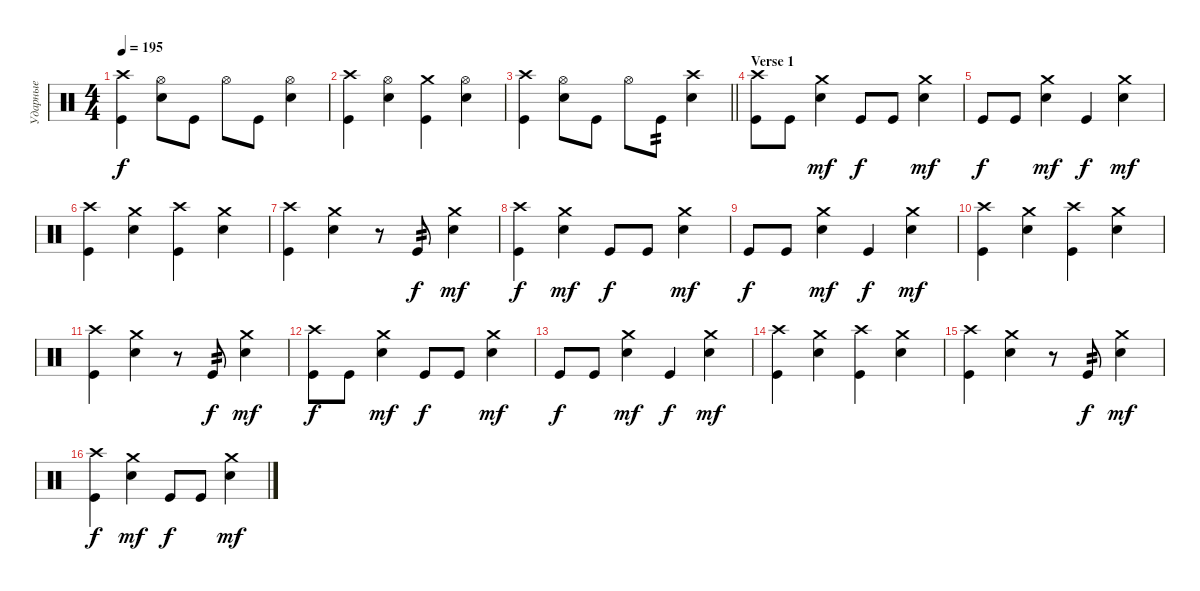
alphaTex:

\track ("Ударные" "Ударные") {instrument percussion}
\staff {score}
\articulation defaults
\ts (4 4)
\tempo 195
\clef neutral
\ks c
("Kick (hit)" "Crash high (hit)").4{dy f} ("Snare (hit) 2" "Hi-Hat (open)").8 "Kick (hit)".8 "Hi-Hat (open)".8 "Kick (hit)".8 ("Snare (hit) 2" "Hi-Hat (open)").4 |
("Kick (hit)" "Crash high (hit)").4 ("Snare (hit) 2" "Hi-Hat (open)").4 ("Kick (hit)" "Crash medium (hit)").4 ("Snare (hit) 2" "Hi-Hat (open)").4 |
\barLineRight lightlight
("Kick (hit)" "Crash high (hit)").4 ("Snare (hit) 2" "Hi-Hat (open)").8 "Kick (hit)".8 "Hi-Hat (open)".8 "Kick (hit)".8{tp 2} ("Snare (hit) 2" "Crash high (hit)").4 |
\section ("" "Verse 1")
("Kick (hit)" "Crash high (hit)").8 "Kick (hit)".8 ("Snare (hit) 2" "Crash medium (hit)").4{dy mf} "Kick (hit)".8{dy f} "Kick (hit)".8 ("Snare (hit) 2" "Crash medium (hit)").4{dy mf} |
"Kick (hit)".8{dy f} "Kick (hit)".8 ("Snare (hit) 2" "Crash medium (hit)").4{dy mf} "Kick (hit)".4{dy f} ("Snare (hit) 2" "Crash medium (hit)").4{dy mf} |
("Kick (hit)" "Crash high (hit)").4 ("Snare (hit) 2" "Crash medium (hit)").4 ("Kick (hit)" "Crash high (hit)").4 ("Snare (hit) 2" "Crash medium (hit)").4 |
("Kick (hit)" "Crash high (hit)").4 ("Snare (hit) 2" "Crash medium (hit)").4 r.8 "Kick (hit)".8{tp 2 dy f} ("Snare (hit) 2" "Crash medium (hit)").4{dy mf} |
("Kick (hit)" "Crash high (hit)").4{dy f} ("Snare (hit) 2" "Crash medium (hit)").4{dy mf} "Kick (hit)".8{dy f} "Kick (hit)".8 ("Snare (hit) 2" "Crash medium (hit)").4{dy mf} |
"Kick (hit)".8{dy f} "Kick (hit)".8 ("Snare (hit) 2" "Crash medium (hit)").4{dy mf} "Kick (hit)".4{dy f} ("Snare (hit) 2" "Crash medium (hit)").4{dy mf} |
("Kick (hit)" "Crash high (hit)").4 ("Snare (hit) 2" "Crash medium (hit)").4 ("Kick (hit)" "Crash high (hit)").4 ("Snare (hit) 2" "Crash medium (hit)").4 |
("Kick (hit)" "Crash high (hit)").4 ("Snare (hit) 2" "Crash medium (hit)").4 r.8 "Kick (hit)".8{tp 2 dy f} ("Snare (hit) 2" "Crash medium (hit)").4{dy mf} |
("Kick (hit)" "Crash high (hit)").8{dy f} "Kick (hit)".8 ("Snare (hit) 2" "Crash medium (hit)").4{dy mf} "Kick (hit)".8{dy f} "Kick (hit)".8 ("Snare (hit) 2" "Crash medium (hit)").4{dy mf} |
"Kick (hit)".8{dy f} "Kick (hit)".8 ("Snare (hit) 2" "Crash medium (hit)").4{dy mf} "Kick (hit)".4{dy f} ("Snare (hit) 2" "Crash medium (hit)").4{dy mf} |
("Kick (hit)" "Crash high (hit)").4 ("Snare (hit) 2" "Crash medium (hit)").4 ("Kick (hit)" "Crash high (hit)").4 ("Snare (hit) 2" "Crash medium (hit)").4 |
("Kick (hit)" "Crash high (hit)").4 ("Snare (hit) 2" "Crash medium (hit)").4 r.8 "Kick (hit)".8{tp 2 dy f} ("Snare (hit) 2" "Crash medium (hit)").4{dy mf} |
("Kick (hit)" "Crash high (hit)").4{dy f} ("Snare (hit) 2" "Crash medium (hit)").4{dy mf} "Kick (hit)".8{dy f} "Kick (hit)".8 ("Snare (hit) 2" "Crash medium (hit)").4{dy mf}
